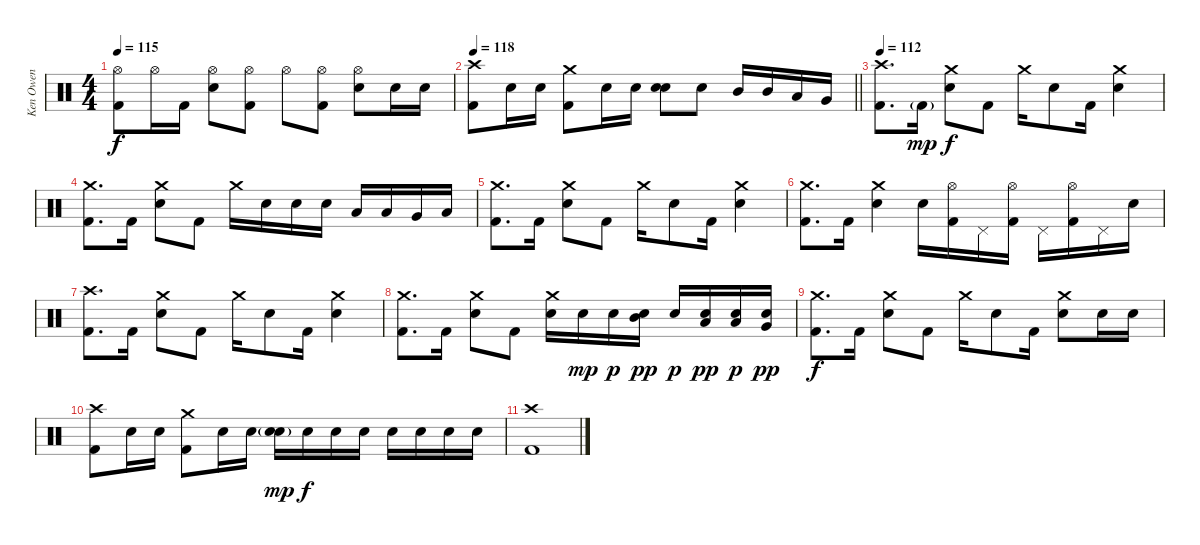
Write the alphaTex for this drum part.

\track ("Ken Owen" "Ken Owen") {instrument percussion}
\staff {score}
\articulation defaults
\ts (4 4)
\tempo 115
\clef neutral
\ks c
("Hi-Hat (open)" "Kick (hit) 2").8{dy f} "Hi-Hat (open)".16 "Kick (hit) 2".16 ("Hi-Hat (open)" "Electric Snare (hit)").8 ("Hi-Hat (open)" "Kick (hit) 2").8 "Hi-Hat (open)".8 ("Hi-Hat (open)" "Kick (hit) 2").8 ("Hi-Hat (open)" "Electric Snare (hit)").8 "Electric Snare (hit)".16 "Electric Snare (hit)".16 |
\tempo 118
\barLineRight lightlight
("Crash high (hit)" "Kick (hit) 2").8 "Electric Snare (hit)".16 "Electric Snare (hit)".16 ("Crash medium (hit)" "Kick (hit) 2").8 "Electric Snare (hit)".16 "Electric Snare (hit)".16 ("Electric Snare (hit)" "Electric Snare (hit)").8 "Electric Snare (hit)".8 "Mid Tom (hit)".16 "Mid Tom (hit)".16 "Low Tom (hit)".16 "Very Low Tom (hit)".16 |
\section ("" "")
\tempo 112
("Crash high (hit)" "Kick (hit) 2").8{d} "Kick (hit) 2"{g}.16{dy mp} ("Crash medium (hit)" "Electric Snare (hit)").8{dy f} "Kick (hit) 2".8 "Crash medium (hit)".16 "Electric Snare (hit)".8 "Kick (hit) 2".16 ("Crash medium (hit)" "Electric Snare (hit)").4 |
("Crash medium (hit)" "Kick (hit) 2").8{d} "Kick (hit) 2".16 ("Crash medium (hit)" "Electric Snare (hit)").8 "Kick (hit) 2".8 "Crash medium (hit)".16 "Electric Snare (hit)".16 "Electric Snare (hit)".16 "Electric Snare (hit)".16 "Low Tom (hit)".16 "Low Tom (hit)".16 "Very Low Tom (hit)".16 "Low Floor Tom (hit)".16 |
("Crash medium (hit)" "Kick (hit) 2").8{d} "Kick (hit) 2".16 ("Crash medium (hit)" "Electric Snare (hit)").8 "Kick (hit) 2".8 "Crash medium (hit)".16 "Electric Snare (hit)".8 "Kick (hit) 2".16 ("Crash medium (hit)" "Electric Snare (hit)").4 |
("Crash medium (hit)" "Kick (hit) 2").8{d} "Kick (hit) 2".16 ("Crash medium (hit)" "Electric Snare (hit)").4 "Electric Snare (hit)".16 ("Hi-Hat (open)" "Kick (hit) 2").16 "Pedal Hi-Hat (hit)".16 ("Hi-Hat (open)" "Kick (hit) 2").16 "Pedal Hi-Hat (hit)".16 ("Hi-Hat (open)" "Kick (hit) 2").16 "Pedal Hi-Hat (hit)".16 "Electric Snare (hit)".16 |
("Crash high (hit)" "Kick (hit) 2").8{d} "Kick (hit) 2".16 ("Crash medium (hit)" "Electric Snare (hit)").8 "Kick (hit) 2".8 "Crash medium (hit)".16 "Electric Snare (hit)".8 "Kick (hit) 2".16 ("Crash medium (hit)" "Electric Snare (hit)").4 |
("Crash medium (hit)" "Kick (hit) 2").8{d} "Kick (hit) 2".16 ("Crash medium (hit)" "Electric Snare (hit)").8 "Kick (hit) 2".8 ("Crash medium (hit)" "Electric Snare (hit)").16 "Electric Snare (hit)".16{dy mp} "Electric Snare (hit)".16{dy p} ("Mid Tom (hit)" "Electric Snare (hit)").16{dy pp} "Electric Snare (hit)".16{dy p} ("Low Tom (hit)" "Electric Snare (hit)").16{dy pp} ("Low Tom (hit)" "Electric Snare (hit)").16{dy p} ("Electric Snare (hit)" "Very Low Tom (hit)").16{dy pp} |
("Crash medium (hit)" "Kick (hit) 2").8{d dy f} "Kick (hit) 2".16 ("Crash medium (hit)" "Electric Snare (hit)").8 "Kick (hit) 2".8 "Crash medium (hit)".16 "Electric Snare (hit)".8 "Kick (hit) 2".16 ("Crash medium (hit)" "Electric Snare (hit)").8 "Electric Snare (hit)".16 "Electric Snare (hit)".16 |
("Crash high (hit)" "Kick (hit) 2").8 "Electric Snare (hit)".16 "Electric Snare (hit)".16 ("Crash medium (hit)" "Kick (hit) 2").8 "Electric Snare (hit)".16 "Electric Snare (hit)".16 ("Electric Snare (hit)" "Electric Snare (hit)"{g}).16{dy mp} "Electric Snare (hit)".16{dy f} "Electric Snare (hit)".16 "Electric Snare (hit)".16 "Electric Snare (hit)".16 "Electric Snare (hit)".16 "Electric Snare (hit)".16 "Electric Snare (hit)".16 |
("Crash high (hit)" "Kick (hit) 2").1
